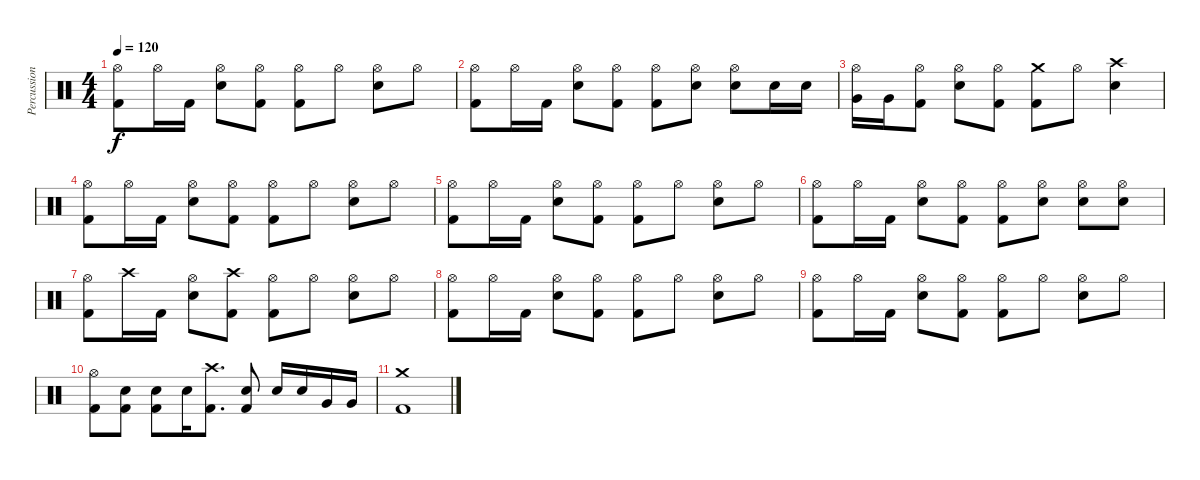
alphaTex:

\track ("Percussion" "Percussion") {instrument percussion}
\staff {score}
\articulation defaults
\ts (4 4)
\tempo 120
\clef neutral
\ks c
("Hi-Hat (open)" "Kick (hit) 2").8{dy f} "Hi-Hat (open)".16 "Kick (hit) 2".16 ("Hi-Hat (open)" "Electric Snare (hit)").8 ("Hi-Hat (open)" "Kick (hit) 2").8 ("Hi-Hat (open)" "Kick (hit) 2").8 "Hi-Hat (open)".8 ("Hi-Hat (open)" "Electric Snare (hit)").8 "Hi-Hat (open)".8 |
("Hi-Hat (open)" "Kick (hit) 2").8 "Hi-Hat (open)".16 "Kick (hit) 2".16 ("Hi-Hat (open)" "Electric Snare (hit)").8 ("Hi-Hat (open)" "Kick (hit) 2").8 ("Hi-Hat (open)" "Kick (hit) 2").8 ("Hi-Hat (open)" "Electric Snare (hit)").8 ("Hi-Hat (open)" "Electric Snare (hit)").8 "Electric Snare (hit)".16 "Electric Snare (hit)".16 |
("Hi-Hat (open)" "Very Low Tom (hit)").16 "Very Low Tom (hit)".16 ("Hi-Hat (open)" "Kick (hit) 2").8 ("Hi-Hat (open)" "Electric Snare (hit)").8 ("Hi-Hat (open)" "Kick (hit) 2").8 ("Crash medium (hit)" "Kick (hit) 2").8 "Hi-Hat (open)".8 ("Crash high (hit)" "Electric Snare (hit)").4 |
("Hi-Hat (open)" "Kick (hit) 2").8 "Hi-Hat (open)".16 "Kick (hit) 2".16 ("Hi-Hat (open)" "Electric Snare (hit)").8 ("Hi-Hat (open)" "Kick (hit) 2").8 ("Hi-Hat (open)" "Kick (hit) 2").8 "Hi-Hat (open)".8 ("Hi-Hat (open)" "Electric Snare (hit)").8 "Hi-Hat (open)".8 |
("Hi-Hat (open)" "Kick (hit) 2").8 "Hi-Hat (open)".16 "Kick (hit) 2".16 ("Hi-Hat (open)" "Electric Snare (hit)").8 ("Hi-Hat (open)" "Kick (hit) 2").8 ("Hi-Hat (open)" "Kick (hit) 2").8 "Hi-Hat (open)".8 ("Hi-Hat (open)" "Electric Snare (hit)").8 "Hi-Hat (open)".8 |
("Hi-Hat (open)" "Kick (hit) 2").8 "Hi-Hat (open)".16 "Kick (hit) 2".16 ("Hi-Hat (open)" "Electric Snare (hit)").8 ("Hi-Hat (open)" "Kick (hit) 2").8 ("Hi-Hat (open)" "Kick (hit) 2").8 ("Hi-Hat (open)" "Electric Snare (hit)").8 ("Hi-Hat (open)" "Electric Snare (hit)").8 ("Hi-Hat (open)" "Electric Snare (hit)").8 |
("Hi-Hat (open)" "Kick (hit) 2").8 "Crash high (hit)".16 "Kick (hit) 2".16 ("Hi-Hat (open)" "Electric Snare (hit)").8 ("Crash high (hit)" "Kick (hit) 2").8 ("Hi-Hat (open)" "Kick (hit) 2").8 "Hi-Hat (open)".8 ("Hi-Hat (open)" "Electric Snare (hit)").8 "Hi-Hat (open)".8 |
("Hi-Hat (open)" "Kick (hit) 2").8 "Hi-Hat (open)".16 "Kick (hit) 2".16 ("Hi-Hat (open)" "Electric Snare (hit)").8 ("Hi-Hat (open)" "Kick (hit) 2").8 ("Hi-Hat (open)" "Kick (hit) 2").8 "Hi-Hat (open)".8 ("Hi-Hat (open)" "Electric Snare (hit)").8 "Hi-Hat (open)".8 |
("Hi-Hat (open)" "Kick (hit) 2").8 "Hi-Hat (open)".16 "Kick (hit) 2".16 ("Hi-Hat (open)" "Electric Snare (hit)").8 ("Hi-Hat (open)" "Kick (hit) 2").8 ("Hi-Hat (open)" "Kick (hit) 2").8 "Hi-Hat (open)".8 ("Hi-Hat (open)" "Electric Snare (hit)").8 "Hi-Hat (open)".8 |
("Hi-Hat (open)" "Kick (hit) 2").8 ("Electric Snare (hit)" "Kick (hit) 2").8 ("Electric Snare (hit)" "Kick (hit) 2").8 "Electric Snare (hit)".16 ("Crash high (hit)" "Kick (hit) 2").8{d} ("Electric Snare (hit)" "Kick (hit) 2").8 "Electric Snare (hit)".16 "Electric Snare (hit)".16 "Very Low Tom (hit)".16 "Very Low Tom (hit)".16 |
("Crash medium (hit)" "Kick (hit) 2").1
